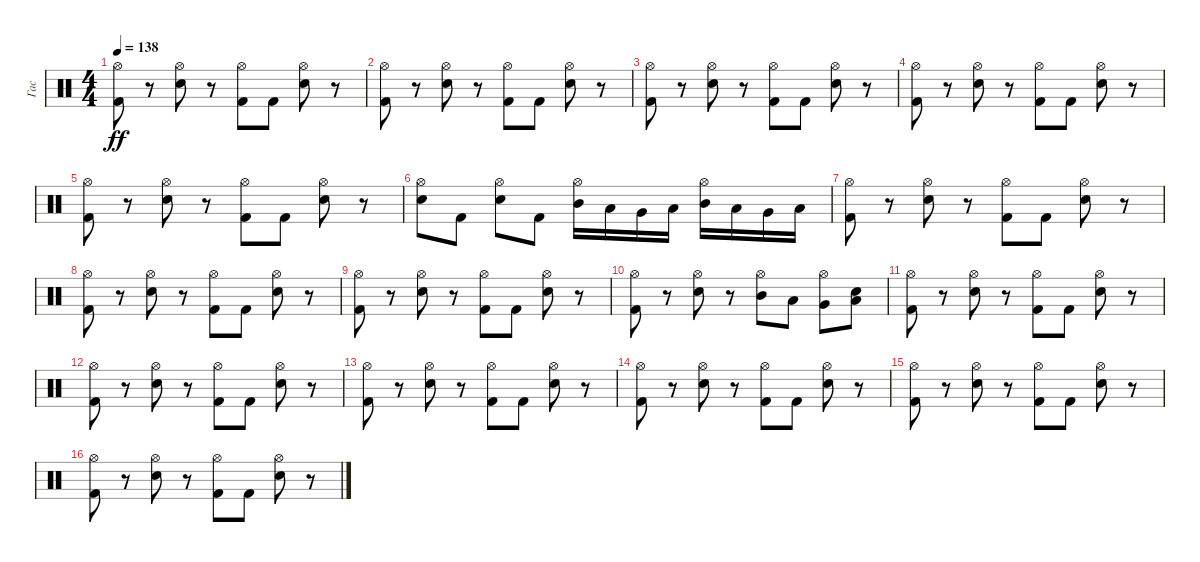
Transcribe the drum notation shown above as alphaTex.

\track ("Гас" "Гас") {instrument percussion}
\staff {score}
\articulation defaults
\ts (4 4)
\tempo 138
\clef neutral
\ks c
("Hi-Hat (open)" "Kick (hit) 2").8{dy ff} r.8 ("Hi-Hat (open)" "Electric Snare (hit)").8 r.8 ("Hi-Hat (open)" "Kick (hit) 2").8 "Kick (hit) 2".8 ("Hi-Hat (open)" "Electric Snare (hit)").8 r.8 |
("Hi-Hat (open)" "Kick (hit) 2").8 r.8 ("Hi-Hat (open)" "Electric Snare (hit)").8 r.8 ("Hi-Hat (open)" "Kick (hit) 2").8 "Kick (hit) 2".8 ("Hi-Hat (open)" "Electric Snare (hit)").8 r.8 |
("Hi-Hat (open)" "Kick (hit) 2").8 r.8 ("Hi-Hat (open)" "Electric Snare (hit)").8 r.8 ("Hi-Hat (open)" "Kick (hit) 2").8 "Kick (hit) 2".8 ("Hi-Hat (open)" "Electric Snare (hit)").8 r.8 |
("Hi-Hat (open)" "Kick (hit) 2").8 r.8 ("Hi-Hat (open)" "Electric Snare (hit)").8 r.8 ("Hi-Hat (open)" "Kick (hit) 2").8 "Kick (hit) 2".8 ("Hi-Hat (open)" "Electric Snare (hit)").8 r.8 |
("Hi-Hat (open)" "Kick (hit) 2").8 r.8 ("Hi-Hat (open)" "Electric Snare (hit)").8 r.8 ("Hi-Hat (open)" "Kick (hit) 2").8 "Kick (hit) 2".8 ("Hi-Hat (open)" "Electric Snare (hit)").8 r.8 |
("Hi-Hat (open)" "Electric Snare (hit)").8 "Kick (hit) 2".8 ("Hi-Hat (open)" "Electric Snare (hit)").8 "Kick (hit) 2".8 ("Hi-Hat (open)" "Mid Tom (hit)").16 "Low Tom (hit)".16 "Very Low Tom (hit)".16 "Low Floor Tom (hit)".16 ("Hi-Hat (open)" "Mid Tom (hit)").16 "Low Tom (hit)".16 "Very Low Tom (hit)".16 "Low Floor Tom (hit)".16 |
("Hi-Hat (open)" "Kick (hit) 2").8 r.8 ("Hi-Hat (open)" "Electric Snare (hit)").8 r.8 ("Hi-Hat (open)" "Kick (hit) 2").8 "Kick (hit) 2".8 ("Hi-Hat (open)" "Electric Snare (hit)").8 r.8 |
("Hi-Hat (open)" "Kick (hit) 2").8 r.8 ("Hi-Hat (open)" "Electric Snare (hit)").8 r.8 ("Hi-Hat (open)" "Kick (hit) 2").8 "Kick (hit) 2".8 ("Hi-Hat (open)" "Electric Snare (hit)").8 r.8 |
("Hi-Hat (open)" "Kick (hit) 2").8 r.8 ("Hi-Hat (open)" "Electric Snare (hit)").8 r.8 ("Hi-Hat (open)" "Kick (hit) 2").8 "Kick (hit) 2".8 ("Hi-Hat (open)" "Electric Snare (hit)").8 r.8 |
("Hi-Hat (open)" "Kick (hit) 2").8 r.8 ("Hi-Hat (open)" "Electric Snare (hit)").8 r.8 ("Hi-Hat (open)" "Mid Tom (hit)").8 "Low Tom (hit)".8 ("Hi-Hat (open)" "Very Low Tom (hit)").8 ("Low Floor Tom (hit)" "Electric Snare (hit)").8 |
("Hi-Hat (open)" "Kick (hit) 2").8 r.8 ("Hi-Hat (open)" "Electric Snare (hit)").8 r.8 ("Hi-Hat (open)" "Kick (hit) 2").8 "Kick (hit) 2".8 ("Hi-Hat (open)" "Electric Snare (hit)").8 r.8 |
("Hi-Hat (open)" "Kick (hit) 2").8 r.8 ("Hi-Hat (open)" "Electric Snare (hit)").8 r.8 ("Hi-Hat (open)" "Kick (hit) 2").8 "Kick (hit) 2".8 ("Hi-Hat (open)" "Electric Snare (hit)").8 r.8 |
("Hi-Hat (open)" "Kick (hit) 2").8 r.8 ("Hi-Hat (open)" "Electric Snare (hit)").8 r.8 ("Hi-Hat (open)" "Kick (hit) 2").8 "Kick (hit) 2".8 ("Hi-Hat (open)" "Electric Snare (hit)").8 r.8 |
("Hi-Hat (open)" "Kick (hit) 2").8 r.8 ("Hi-Hat (open)" "Electric Snare (hit)").8 r.8 ("Hi-Hat (open)" "Kick (hit) 2").8 "Kick (hit) 2".8 ("Hi-Hat (open)" "Electric Snare (hit)").8 r.8 |
("Hi-Hat (open)" "Kick (hit) 2").8 r.8 ("Hi-Hat (open)" "Electric Snare (hit)").8 r.8 ("Hi-Hat (open)" "Kick (hit) 2").8 "Kick (hit) 2".8 ("Hi-Hat (open)" "Electric Snare (hit)").8 r.8 |
("Hi-Hat (open)" "Kick (hit) 2").8 r.8 ("Hi-Hat (open)" "Electric Snare (hit)").8 r.8 ("Hi-Hat (open)" "Kick (hit) 2").8 "Kick (hit) 2".8 ("Hi-Hat (open)" "Electric Snare (hit)").8 r.8
